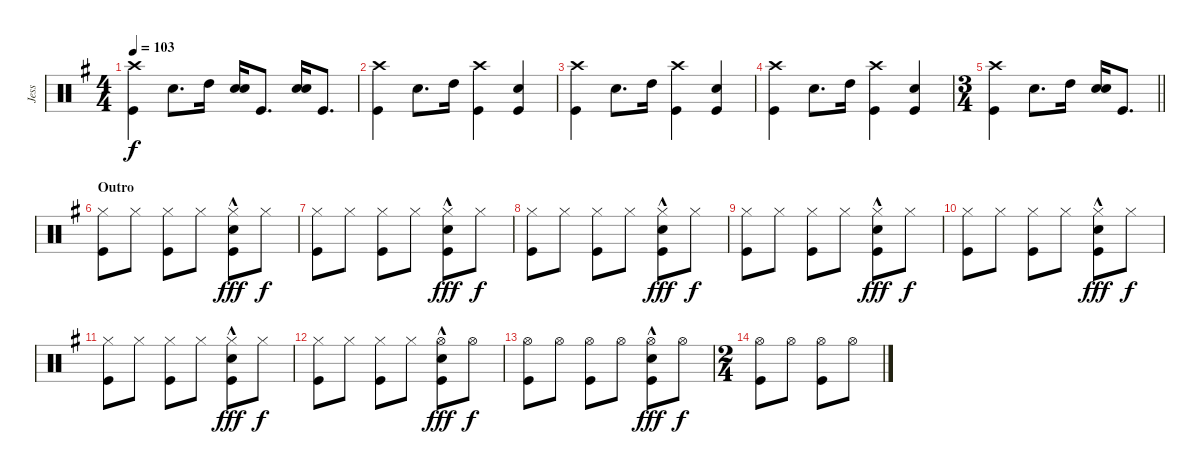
\track ("Jess" "Jess") {instrument percussion}
\staff {score}
\articulation defaults
\ts (4 4)
\tempo 103
\clef neutral
\ks g
("Crash high (hit)" "Kick (hit)").4{dy f} "Snare (hit) 2".8{d} "High Tom (hit)".16 ("Snare (hit) 2" "Snare (hit) 2").16 "Kick (hit)".8{d} ("Snare (hit) 2" "Snare (hit) 2").16 "Kick (hit)".8{d} |
("Crash high (hit)" "Kick (hit)").4 "Snare (hit) 2".8{d} "High Tom (hit)".16 ("Crash high (hit)" "Kick (hit)").4 ("Snare (hit) 2" "Kick (hit)").4 |
("Crash high (hit)" "Kick (hit)").4 "Snare (hit) 2".8{d} "High Tom (hit)".16 ("Crash high (hit)" "Kick (hit)").4 ("Snare (hit) 2" "Kick (hit)").4 |
("Crash high (hit)" "Kick (hit)").4 "Snare (hit) 2".8{d} "High Tom (hit)".16 ("Crash high (hit)" "Kick (hit)").4 ("Snare (hit) 2" "Kick (hit)").4 |
\ts (3 4)
\barLineRight lightlight
("Crash high (hit)" "Kick (hit)").4 "Snare (hit) 2".8{d} "High Tom (hit)".16 ("Snare (hit) 2" "Snare (hit) 2").16 "Kick (hit)".8{d} |
\section ("" "Outro")
("Hi-Hat (closed)" "Kick (hit)").8 "Hi-Hat (closed)".8 ("Hi-Hat (closed)" "Kick (hit)").8 "Hi-Hat (closed)".8 ("Hi-Hat (closed)"{hac} "Snare (hit) 2"{hac} "Kick (hit)"{hac}).8{dy fff} "Hi-Hat (closed)".8{dy f} |
("Hi-Hat (closed)" "Kick (hit)").8 "Hi-Hat (closed)".8 ("Hi-Hat (closed)" "Kick (hit)").8 "Hi-Hat (closed)".8 ("Hi-Hat (closed)"{hac} "Snare (hit) 2"{hac} "Kick (hit)"{hac}).8{dy fff} "Hi-Hat (closed)".8{dy f} |
("Hi-Hat (closed)" "Kick (hit)").8 "Hi-Hat (closed)".8 ("Hi-Hat (closed)" "Kick (hit)").8 "Hi-Hat (closed)".8 ("Hi-Hat (closed)"{hac} "Snare (hit) 2"{hac} "Kick (hit)"{hac}).8{dy fff} "Hi-Hat (closed)".8{dy f} |
("Hi-Hat (closed)" "Kick (hit)").8 "Hi-Hat (closed)".8 ("Hi-Hat (closed)" "Kick (hit)").8 "Hi-Hat (closed)".8 ("Hi-Hat (closed)"{hac} "Snare (hit) 2"{hac} "Kick (hit)"{hac}).8{dy fff} "Hi-Hat (closed)".8{dy f} |
("Hi-Hat (closed)" "Kick (hit)").8 "Hi-Hat (closed)".8 ("Hi-Hat (closed)" "Kick (hit)").8 "Hi-Hat (closed)".8 ("Hi-Hat (closed)"{hac} "Snare (hit) 2"{hac} "Kick (hit)"{hac}).8{dy fff} "Hi-Hat (closed)".8{dy f} |
("Hi-Hat (closed)" "Kick (hit)").8 "Hi-Hat (closed)".8 ("Hi-Hat (closed)" "Kick (hit)").8 "Hi-Hat (closed)".8 ("Hi-Hat (closed)"{hac} "Snare (hit) 2"{hac} "Kick (hit)"{hac}).8{dy fff} "Hi-Hat (closed)".8{dy f} |
("Hi-Hat (closed)" "Kick (hit)").8 "Hi-Hat (closed)".8 ("Hi-Hat (closed)" "Kick (hit)").8 "Hi-Hat (closed)".8 ("Hi-Hat (open)"{hac} "Snare (hit) 2"{hac} "Kick (hit)"{hac}).8{dy fff} "Hi-Hat (open)".8{dy f} |
("Hi-Hat (open)" "Kick (hit)").8 "Hi-Hat (open)".8 ("Hi-Hat (open)" "Kick (hit)").8 "Hi-Hat (open)".8 ("Hi-Hat (open)"{hac} "Snare (hit) 2"{hac} "Kick (hit)"{hac}).8{dy fff} "Hi-Hat (open)".8{dy f} |
\ts (2 4)
("Hi-Hat (open)" "Kick (hit)").8 "Hi-Hat (open)".8 ("Hi-Hat (open)" "Kick (hit)").8 "Hi-Hat (open)".8
